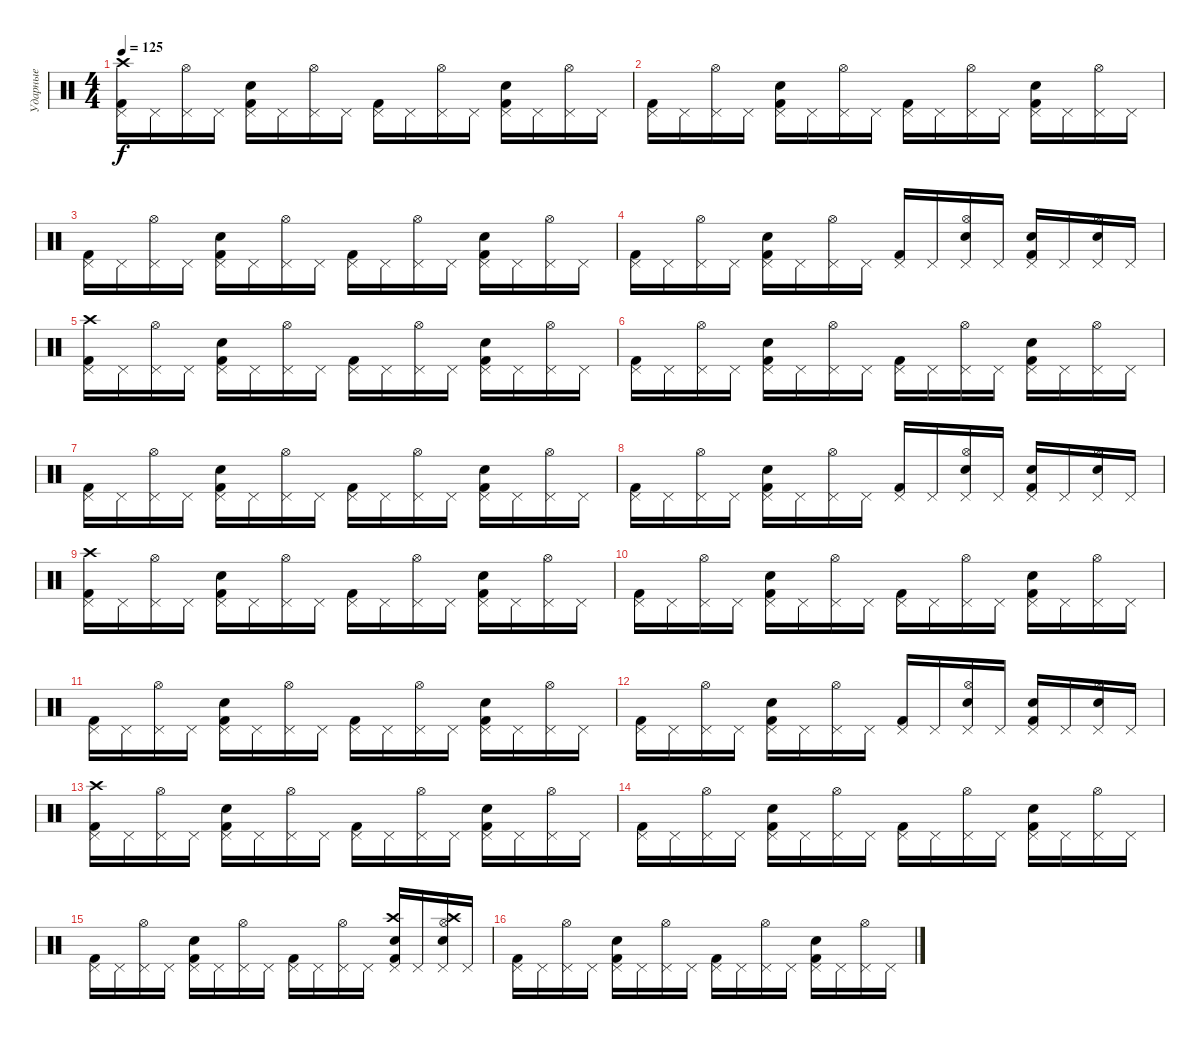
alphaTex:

\track ("Ударные" "Ударные") {instrument percussion}
\staff {score}
\articulation defaults
\ts (4 4)
\tempo 125
\clef neutral
\ks c
("Kick (hit) 2" "Pedal Hi-Hat (hit)" "Crash high (hit)").16{dy f} "Pedal Hi-Hat (hit)".16 ("Pedal Hi-Hat (hit)" "Hi-Hat (open)").16 "Pedal Hi-Hat (hit)".16 ("Kick (hit) 2" "Pedal Hi-Hat (hit)" "Snare (hit) 2").16 "Pedal Hi-Hat (hit)".16 ("Pedal Hi-Hat (hit)" "Hi-Hat (open)").16 "Pedal Hi-Hat (hit)".16 ("Kick (hit) 2" "Pedal Hi-Hat (hit)").16 "Pedal Hi-Hat (hit)".16 ("Pedal Hi-Hat (hit)" "Hi-Hat (open)").16 "Pedal Hi-Hat (hit)".16 ("Kick (hit) 2" "Pedal Hi-Hat (hit)" "Snare (hit) 2").16 "Pedal Hi-Hat (hit)".16 ("Pedal Hi-Hat (hit)" "Hi-Hat (open)").16 "Pedal Hi-Hat (hit)".16 |
("Kick (hit) 2" "Pedal Hi-Hat (hit)").16 "Pedal Hi-Hat (hit)".16 ("Pedal Hi-Hat (hit)" "Hi-Hat (open)").16 "Pedal Hi-Hat (hit)".16 ("Kick (hit) 2" "Pedal Hi-Hat (hit)" "Snare (hit) 2").16 "Pedal Hi-Hat (hit)".16 ("Pedal Hi-Hat (hit)" "Hi-Hat (open)").16 "Pedal Hi-Hat (hit)".16 ("Kick (hit) 2" "Pedal Hi-Hat (hit)").16 "Pedal Hi-Hat (hit)".16 ("Pedal Hi-Hat (hit)" "Hi-Hat (open)").16 "Pedal Hi-Hat (hit)".16 ("Kick (hit) 2" "Pedal Hi-Hat (hit)" "Snare (hit) 2").16 "Pedal Hi-Hat (hit)".16 ("Pedal Hi-Hat (hit)" "Hi-Hat (open)").16 "Pedal Hi-Hat (hit)".16 |
("Kick (hit) 2" "Pedal Hi-Hat (hit)").16 "Pedal Hi-Hat (hit)".16 ("Pedal Hi-Hat (hit)" "Hi-Hat (open)").16 "Pedal Hi-Hat (hit)".16 ("Kick (hit) 2" "Pedal Hi-Hat (hit)" "Snare (hit) 2").16 "Pedal Hi-Hat (hit)".16 ("Pedal Hi-Hat (hit)" "Hi-Hat (open)").16 "Pedal Hi-Hat (hit)".16 ("Kick (hit) 2" "Pedal Hi-Hat (hit)").16 "Pedal Hi-Hat (hit)".16 ("Pedal Hi-Hat (hit)" "Hi-Hat (open)").16 "Pedal Hi-Hat (hit)".16 ("Kick (hit) 2" "Pedal Hi-Hat (hit)" "Snare (hit) 2").16 "Pedal Hi-Hat (hit)".16 ("Pedal Hi-Hat (hit)" "Hi-Hat (open)").16 "Pedal Hi-Hat (hit)".16 |
("Kick (hit) 2" "Pedal Hi-Hat (hit)").16 "Pedal Hi-Hat (hit)".16 ("Pedal Hi-Hat (hit)" "Hi-Hat (open)").16 "Pedal Hi-Hat (hit)".16 ("Kick (hit) 2" "Pedal Hi-Hat (hit)" "Snare (hit) 2").16 "Pedal Hi-Hat (hit)".16 ("Pedal Hi-Hat (hit)" "Hi-Hat (open)").16 "Pedal Hi-Hat (hit)".16 ("Kick (hit) 2" "Pedal Hi-Hat (hit)").16 "Pedal Hi-Hat (hit)".16 ("Pedal Hi-Hat (hit)" "Snare (hit) 2" "Hi-Hat (open)").16 "Pedal Hi-Hat (hit)".16 ("Kick (hit) 2" "Pedal Hi-Hat (hit)" "Snare (hit) 2").16 "Pedal Hi-Hat (hit)".16 ("Pedal Hi-Hat (hit)" "Snare (hit) 2" "Hi-Hat (open)").16 "Pedal Hi-Hat (hit)".16 |
("Kick (hit) 2" "Pedal Hi-Hat (hit)" "Crash high (hit)").16 "Pedal Hi-Hat (hit)".16 ("Pedal Hi-Hat (hit)" "Hi-Hat (open)").16 "Pedal Hi-Hat (hit)".16 ("Kick (hit) 2" "Pedal Hi-Hat (hit)" "Snare (hit) 2").16 "Pedal Hi-Hat (hit)".16 ("Pedal Hi-Hat (hit)" "Hi-Hat (open)").16 "Pedal Hi-Hat (hit)".16 ("Kick (hit) 2" "Pedal Hi-Hat (hit)").16 "Pedal Hi-Hat (hit)".16 ("Pedal Hi-Hat (hit)" "Hi-Hat (open)").16 "Pedal Hi-Hat (hit)".16 ("Kick (hit) 2" "Pedal Hi-Hat (hit)" "Snare (hit) 2").16 "Pedal Hi-Hat (hit)".16 ("Pedal Hi-Hat (hit)" "Hi-Hat (open)").16 "Pedal Hi-Hat (hit)".16 |
("Kick (hit) 2" "Pedal Hi-Hat (hit)").16 "Pedal Hi-Hat (hit)".16 ("Pedal Hi-Hat (hit)" "Hi-Hat (open)").16 "Pedal Hi-Hat (hit)".16 ("Kick (hit) 2" "Pedal Hi-Hat (hit)" "Snare (hit) 2").16 "Pedal Hi-Hat (hit)".16 ("Pedal Hi-Hat (hit)" "Hi-Hat (open)").16 "Pedal Hi-Hat (hit)".16 ("Kick (hit) 2" "Pedal Hi-Hat (hit)").16 "Pedal Hi-Hat (hit)".16 ("Pedal Hi-Hat (hit)" "Hi-Hat (open)").16 "Pedal Hi-Hat (hit)".16 ("Kick (hit) 2" "Pedal Hi-Hat (hit)" "Snare (hit) 2").16 "Pedal Hi-Hat (hit)".16 ("Pedal Hi-Hat (hit)" "Hi-Hat (open)").16 "Pedal Hi-Hat (hit)".16 |
("Kick (hit) 2" "Pedal Hi-Hat (hit)").16 "Pedal Hi-Hat (hit)".16 ("Pedal Hi-Hat (hit)" "Hi-Hat (open)").16 "Pedal Hi-Hat (hit)".16 ("Kick (hit) 2" "Pedal Hi-Hat (hit)" "Snare (hit) 2").16 "Pedal Hi-Hat (hit)".16 ("Pedal Hi-Hat (hit)" "Hi-Hat (open)").16 "Pedal Hi-Hat (hit)".16 ("Kick (hit) 2" "Pedal Hi-Hat (hit)").16 "Pedal Hi-Hat (hit)".16 ("Pedal Hi-Hat (hit)" "Hi-Hat (open)").16 "Pedal Hi-Hat (hit)".16 ("Kick (hit) 2" "Pedal Hi-Hat (hit)" "Snare (hit) 2").16 "Pedal Hi-Hat (hit)".16 ("Pedal Hi-Hat (hit)" "Hi-Hat (open)").16 "Pedal Hi-Hat (hit)".16 |
("Kick (hit) 2" "Pedal Hi-Hat (hit)").16 "Pedal Hi-Hat (hit)".16 ("Pedal Hi-Hat (hit)" "Hi-Hat (open)").16 "Pedal Hi-Hat (hit)".16 ("Kick (hit) 2" "Pedal Hi-Hat (hit)" "Snare (hit) 2").16 "Pedal Hi-Hat (hit)".16 ("Pedal Hi-Hat (hit)" "Hi-Hat (open)").16 "Pedal Hi-Hat (hit)".16 ("Kick (hit) 2" "Pedal Hi-Hat (hit)").16 "Pedal Hi-Hat (hit)".16 ("Pedal Hi-Hat (hit)" "Snare (hit) 2" "Hi-Hat (open)").16 "Pedal Hi-Hat (hit)".16 ("Kick (hit) 2" "Pedal Hi-Hat (hit)" "Snare (hit) 2").16 "Pedal Hi-Hat (hit)".16 ("Pedal Hi-Hat (hit)" "Snare (hit) 2" "Hi-Hat (open)").16 "Pedal Hi-Hat (hit)".16 |
("Kick (hit) 2" "Pedal Hi-Hat (hit)" "Crash high (hit)").16 "Pedal Hi-Hat (hit)".16 ("Pedal Hi-Hat (hit)" "Hi-Hat (open)").16 "Pedal Hi-Hat (hit)".16 ("Kick (hit) 2" "Pedal Hi-Hat (hit)" "Snare (hit) 2").16 "Pedal Hi-Hat (hit)".16 ("Pedal Hi-Hat (hit)" "Hi-Hat (open)").16 "Pedal Hi-Hat (hit)".16 ("Kick (hit) 2" "Pedal Hi-Hat (hit)").16 "Pedal Hi-Hat (hit)".16 ("Pedal Hi-Hat (hit)" "Hi-Hat (open)").16 "Pedal Hi-Hat (hit)".16 ("Kick (hit) 2" "Pedal Hi-Hat (hit)" "Snare (hit) 2").16 "Pedal Hi-Hat (hit)".16 ("Pedal Hi-Hat (hit)" "Hi-Hat (open)").16 "Pedal Hi-Hat (hit)".16 |
("Kick (hit) 2" "Pedal Hi-Hat (hit)").16 "Pedal Hi-Hat (hit)".16 ("Pedal Hi-Hat (hit)" "Hi-Hat (open)").16 "Pedal Hi-Hat (hit)".16 ("Kick (hit) 2" "Pedal Hi-Hat (hit)" "Snare (hit) 2").16 "Pedal Hi-Hat (hit)".16 ("Pedal Hi-Hat (hit)" "Hi-Hat (open)").16 "Pedal Hi-Hat (hit)".16 ("Kick (hit) 2" "Pedal Hi-Hat (hit)").16 "Pedal Hi-Hat (hit)".16 ("Pedal Hi-Hat (hit)" "Hi-Hat (open)").16 "Pedal Hi-Hat (hit)".16 ("Kick (hit) 2" "Pedal Hi-Hat (hit)" "Snare (hit) 2").16 "Pedal Hi-Hat (hit)".16 ("Pedal Hi-Hat (hit)" "Hi-Hat (open)").16 "Pedal Hi-Hat (hit)".16 |
("Kick (hit) 2" "Pedal Hi-Hat (hit)").16 "Pedal Hi-Hat (hit)".16 ("Pedal Hi-Hat (hit)" "Hi-Hat (open)").16 "Pedal Hi-Hat (hit)".16 ("Kick (hit) 2" "Pedal Hi-Hat (hit)" "Snare (hit) 2").16 "Pedal Hi-Hat (hit)".16 ("Pedal Hi-Hat (hit)" "Hi-Hat (open)").16 "Pedal Hi-Hat (hit)".16 ("Kick (hit) 2" "Pedal Hi-Hat (hit)").16 "Pedal Hi-Hat (hit)".16 ("Pedal Hi-Hat (hit)" "Hi-Hat (open)").16 "Pedal Hi-Hat (hit)".16 ("Kick (hit) 2" "Pedal Hi-Hat (hit)" "Snare (hit) 2").16 "Pedal Hi-Hat (hit)".16 ("Pedal Hi-Hat (hit)" "Hi-Hat (open)").16 "Pedal Hi-Hat (hit)".16 |
("Kick (hit) 2" "Pedal Hi-Hat (hit)").16 "Pedal Hi-Hat (hit)".16 ("Pedal Hi-Hat (hit)" "Hi-Hat (open)").16 "Pedal Hi-Hat (hit)".16 ("Kick (hit) 2" "Pedal Hi-Hat (hit)" "Snare (hit) 2").16 "Pedal Hi-Hat (hit)".16 ("Pedal Hi-Hat (hit)" "Hi-Hat (open)").16 "Pedal Hi-Hat (hit)".16 ("Kick (hit) 2" "Pedal Hi-Hat (hit)").16 "Pedal Hi-Hat (hit)".16 ("Pedal Hi-Hat (hit)" "Snare (hit) 2" "Hi-Hat (open)").16 "Pedal Hi-Hat (hit)".16 ("Kick (hit) 2" "Pedal Hi-Hat (hit)" "Snare (hit) 2").16 "Pedal Hi-Hat (hit)".16 ("Pedal Hi-Hat (hit)" "Snare (hit) 2" "Hi-Hat (open)").16 "Pedal Hi-Hat (hit)".16 |
("Kick (hit) 2" "Pedal Hi-Hat (hit)" "Crash high (hit)").16 "Pedal Hi-Hat (hit)".16 ("Pedal Hi-Hat (hit)" "Hi-Hat (open)").16 "Pedal Hi-Hat (hit)".16 ("Kick (hit) 2" "Pedal Hi-Hat (hit)" "Snare (hit) 2").16 "Pedal Hi-Hat (hit)".16 ("Pedal Hi-Hat (hit)" "Hi-Hat (open)").16 "Pedal Hi-Hat (hit)".16 ("Kick (hit) 2" "Pedal Hi-Hat (hit)").16 "Pedal Hi-Hat (hit)".16 ("Pedal Hi-Hat (hit)" "Hi-Hat (open)").16 "Pedal Hi-Hat (hit)".16 ("Kick (hit) 2" "Pedal Hi-Hat (hit)" "Snare (hit) 2").16 "Pedal Hi-Hat (hit)".16 ("Pedal Hi-Hat (hit)" "Hi-Hat (open)").16 "Pedal Hi-Hat (hit)".16 |
("Kick (hit) 2" "Pedal Hi-Hat (hit)").16 "Pedal Hi-Hat (hit)".16 ("Pedal Hi-Hat (hit)" "Hi-Hat (open)").16 "Pedal Hi-Hat (hit)".16 ("Kick (hit) 2" "Pedal Hi-Hat (hit)" "Snare (hit) 2").16 "Pedal Hi-Hat (hit)".16 ("Pedal Hi-Hat (hit)" "Hi-Hat (open)").16 "Pedal Hi-Hat (hit)".16 ("Kick (hit) 2" "Pedal Hi-Hat (hit)").16 "Pedal Hi-Hat (hit)".16 ("Pedal Hi-Hat (hit)" "Hi-Hat (open)").16 "Pedal Hi-Hat (hit)".16 ("Kick (hit) 2" "Pedal Hi-Hat (hit)" "Snare (hit) 2").16 "Pedal Hi-Hat (hit)".16 ("Pedal Hi-Hat (hit)" "Hi-Hat (open)").16 "Pedal Hi-Hat (hit)".16 |
("Kick (hit) 2" "Pedal Hi-Hat (hit)").16 "Pedal Hi-Hat (hit)".16 ("Pedal Hi-Hat (hit)" "Hi-Hat (open)").16 "Pedal Hi-Hat (hit)".16 ("Kick (hit) 2" "Pedal Hi-Hat (hit)" "Snare (hit) 2").16 "Pedal Hi-Hat (hit)".16 ("Pedal Hi-Hat (hit)" "Hi-Hat (open)").16 "Pedal Hi-Hat (hit)".16 ("Kick (hit) 2" "Pedal Hi-Hat (hit)").16 "Pedal Hi-Hat (hit)".16 ("Pedal Hi-Hat (hit)" "Hi-Hat (open)").16 "Pedal Hi-Hat (hit)".16 ("Kick (hit) 2" "Pedal Hi-Hat (hit)" "Snare (hit) 2" "Crash high (hit)").16 "Pedal Hi-Hat (hit)".16 ("Pedal Hi-Hat (hit)" "Snare (hit) 2" "Hi-Hat (open)" "Crash high (hit)").16 "Pedal Hi-Hat (hit)".16 |
("Kick (hit) 2" "Pedal Hi-Hat (hit)").16 "Pedal Hi-Hat (hit)".16 ("Pedal Hi-Hat (hit)" "Hi-Hat (open)").16 "Pedal Hi-Hat (hit)".16 ("Kick (hit) 2" "Pedal Hi-Hat (hit)" "Snare (hit) 2").16 "Pedal Hi-Hat (hit)".16 ("Pedal Hi-Hat (hit)" "Hi-Hat (open)").16 "Pedal Hi-Hat (hit)".16 ("Kick (hit) 2" "Pedal Hi-Hat (hit)").16 "Pedal Hi-Hat (hit)".16 ("Pedal Hi-Hat (hit)" "Hi-Hat (open)").16 "Pedal Hi-Hat (hit)".16 ("Kick (hit) 2" "Pedal Hi-Hat (hit)" "Snare (hit) 2").16 "Pedal Hi-Hat (hit)".16 ("Pedal Hi-Hat (hit)" "Hi-Hat (open)").16 "Pedal Hi-Hat (hit)".16
